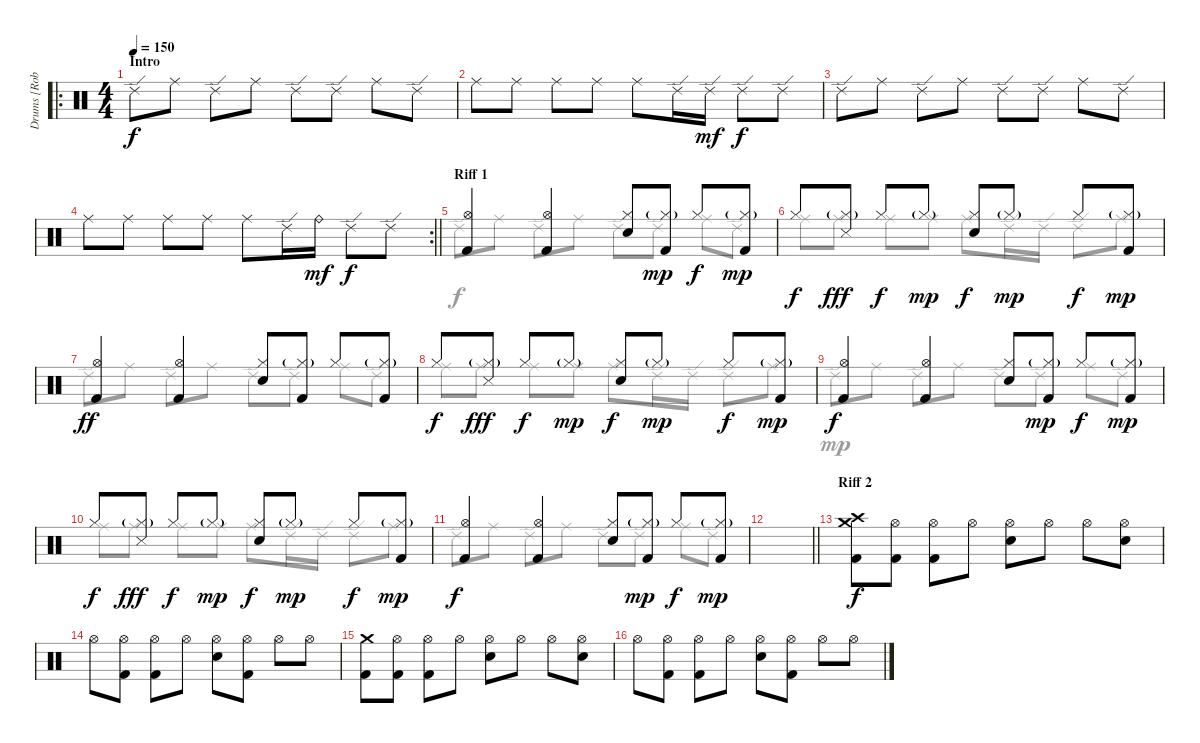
\track ("Drums [Rob Bourdon]" "Drums [Rob") {instrument percussion}
\staff {score}
\articulation defaults
\voice
\ro
\ts (4 4)
\section ("" "Intro")
\tempo 150
\clef neutral
\ks c "Ride (edge) 2".8{dy f} "Ride (middle)".8 "Ride (edge) 2".8 "Ride (middle)".8 "Ride (edge) 2".8 "Ride (edge) 2".8 "Ride (middle)".8 "Ride (edge) 2".8
|
"Ride (middle)".8 "Ride (middle)".8 "Ride (middle)".8 "Ride (middle)".8 "Ride (middle)".8 "Ride (edge) 2".16 "Ride (edge) 2".16{dy mf} "Ride (edge) 2".8{dy f} "Ride (edge) 2".8 |
"Ride (edge) 2".8 "Ride (middle)".8 "Ride (edge) 2".8 "Ride (middle)".8 "Ride (edge) 2".8 "Ride (edge) 2".8 "Ride (middle)".8 "Ride (edge) 2".8 |
\rc 2
\barLineRight lightlight "Ride (middle)".8 "Ride (middle)".8 "Ride (middle)".8 "Ride (middle)".8 "Ride (middle)".8 "Ride (edge) 2".16 "Ride (bell)".16{dy mf} "Ride (edge) 2".8{dy f} "Ride (edge) 2".8
|
\section ("" "Riff 1")
("Hi-Hat (open)" "Kick (hit) 2").4 ("Hi-Hat (open)" "Kick (hit) 2").4 ("Hi-Hat (closed)" "Snare (hit) 2").8 ("Hi-Hat (closed)"{g} "Kick (hit) 2").8{dy mp} "Hi-Hat (closed)".8{dy f} ("Hi-Hat (closed)"{g} "Kick (hit) 2").8{dy mp} |
"Hi-Hat (closed)".8{dy f} ("Hi-Hat (closed)"{g} "Snare (side stick) 3").8{dy fff} "Hi-Hat (closed)".8{dy f} "Hi-Hat (closed)"{g}.8{dy mp} ("Hi-Hat (closed)" "Snare (hit) 2").8{dy f} "Hi-Hat (closed)"{g}.8{dy mp} "Hi-Hat (closed)".8{dy f} ("Hi-Hat (closed)"{g} "Kick (hit) 2").8{dy mp} |
("Hi-Hat (open)" "Kick (hit) 2").4{dy ff} ("Hi-Hat (open)" "Kick (hit) 2").4 ("Hi-Hat (closed)" "Snare (hit) 2").8 ("Hi-Hat (closed)"{g} "Kick (hit) 2").8 "Hi-Hat (closed)".8 ("Hi-Hat (closed)"{g} "Kick (hit) 2").8 |
"Hi-Hat (closed)".8{dy f} ("Hi-Hat (closed)"{g} "Snare (side stick) 3").8{dy fff} "Hi-Hat (closed)".8{dy f} "Hi-Hat (closed)"{g}.8{dy mp} ("Hi-Hat (closed)" "Snare (hit) 2").8{dy f} "Hi-Hat (closed)"{g}.8{dy mp} "Hi-Hat (closed)".8{dy f} ("Hi-Hat (closed)"{g} "Kick (hit) 2").8{dy mp} |
("Hi-Hat (open)" "Kick (hit) 2").4{dy f} ("Hi-Hat (open)" "Kick (hit) 2").4 ("Hi-Hat (closed)" "Snare (hit) 2").8 ("Hi-Hat (closed)"{g} "Kick (hit) 2").8{dy mp} "Hi-Hat (closed)".8{dy f} ("Hi-Hat (closed)"{g} "Kick (hit) 2").8{dy mp} |
"Hi-Hat (closed)".8{dy f} ("Hi-Hat (closed)"{g} "Snare (side stick) 3").8{dy fff} "Hi-Hat (closed)".8{dy f} "Hi-Hat (closed)"{g}.8{dy mp} ("Hi-Hat (closed)" "Snare (hit) 2").8{dy f} "Hi-Hat (closed)"{g}.8{dy mp} "Hi-Hat (closed)".8{dy f} ("Hi-Hat (closed)"{g} "Kick (hit) 2").8{dy mp} |
("Hi-Hat (open)" "Kick (hit) 2").4{dy f} ("Hi-Hat (open)" "Kick (hit) 2").4 ("Hi-Hat (closed)" "Snare (hit) 2").8 ("Hi-Hat (closed)"{g} "Kick (hit) 2").8{dy mp} "Hi-Hat (closed)".8{dy f} ("Hi-Hat (closed)"{g} "Kick (hit) 2").8{dy mp} |
\barLineRight lightlight
|
\section ("" "Riff 2")
("Crash medium (hit)" "Crash high (hit)" "Kick (hit) 2").8{dy f} ("Hi-Hat (open)" "Kick (hit) 2").8 ("Hi-Hat (open)" "Kick (hit) 2").8 "Hi-Hat (open)".8 ("Hi-Hat (open)" "Electric Snare (hit)").8 "Hi-Hat (open)".8 "Hi-Hat (open)".8 ("Hi-Hat (open)" "Snare (hit) 2").8 |
"Hi-Hat (open)".8 ("Hi-Hat (open)" "Kick (hit) 2").8 ("Hi-Hat (open)" "Kick (hit) 2").8 "Hi-Hat (open)".8 ("Hi-Hat (open)" "Snare (hit) 2").8 ("Hi-Hat (open)" "Kick (hit) 2").8 "Hi-Hat (open)".8 "Hi-Hat (open)".8 |
("Crash medium (hit)" "Kick (hit) 2").8 ("Hi-Hat (open)" "Kick (hit) 2").8 ("Hi-Hat (open)" "Kick (hit) 2").8 "Hi-Hat (open)".8 ("Hi-Hat (open)" "Electric Snare (hit)").8 "Hi-Hat (open)".8 "Hi-Hat (open)".8 ("Hi-Hat (open)" "Snare (hit) 2").8 |
"Hi-Hat (open)".8 ("Hi-Hat (open)" "Kick (hit) 2").8 ("Hi-Hat (open)" "Kick (hit) 2").8 "Hi-Hat (open)".8 ("Hi-Hat (open)" "Snare (hit) 2").8 ("Hi-Hat (open)" "Kick (hit) 2").8 "Hi-Hat (open)".8 "Hi-Hat (open)".8
\voice
\clef neutral
\ottava regular
\simile none
\ks c
|
|
|
\barLineRight lightlight
|
"Ride (edge) 2".8 "Ride (middle)".8 "Ride (edge) 2".8 "Ride (middle)".8 "Ride (edge) 2".8 "Ride (edge) 2".8 "Ride (middle)".8 "Ride (edge) 2".8 |
"Ride (middle)".8 "Ride (middle)".8 "Ride (middle)".8 "Ride (middle)".8 "Ride (middle)".8 "Ride (edge) 2".16 "Ride (edge) 2".16 "Ride (edge) 2".8 "Ride (middle)".8 |
"Ride (edge) 2".8 "Ride (middle)".8 "Ride (edge) 2".8 "Ride (middle)".8 "Ride (edge) 2".8 "Ride (edge) 2".8 "Ride (middle)".8 "Ride (edge) 2".8 |
"Ride (middle)".8{dy f} "Ride (middle)".8 "Ride (middle)".8 "Ride (middle)".8 "Ride (middle)".8 "Ride (edge) 2".16 "Ride (edge) 2".16 "Ride (edge) 2".8 "Ride (middle)".8 |
"Ride (edge) 2".8{dy mp} "Ride (middle)".8 "Ride (edge) 2".8 "Ride (middle)".8 "Ride (edge) 2".8 "Ride (edge) 2".8 "Ride (middle)".8 "Ride (edge) 2".8 |
"Ride (middle)".8 "Ride (middle)".8 "Ride (middle)".8 "Ride (middle)".8 "Ride (middle)".8 "Ride (edge) 2".16 "Ride (edge) 2".16 "Ride (edge) 2".8 "Ride (middle)".8 |
"Ride (edge) 2".8 "Ride (middle)".8 "Ride (edge) 2".8 "Ride (middle)".8 "Ride (edge) 2".8 "Ride (edge) 2".8 "Ride (middle)".8 "Ride (edge) 2".8 |
\barLineRight lightlight
|
|
|
|
